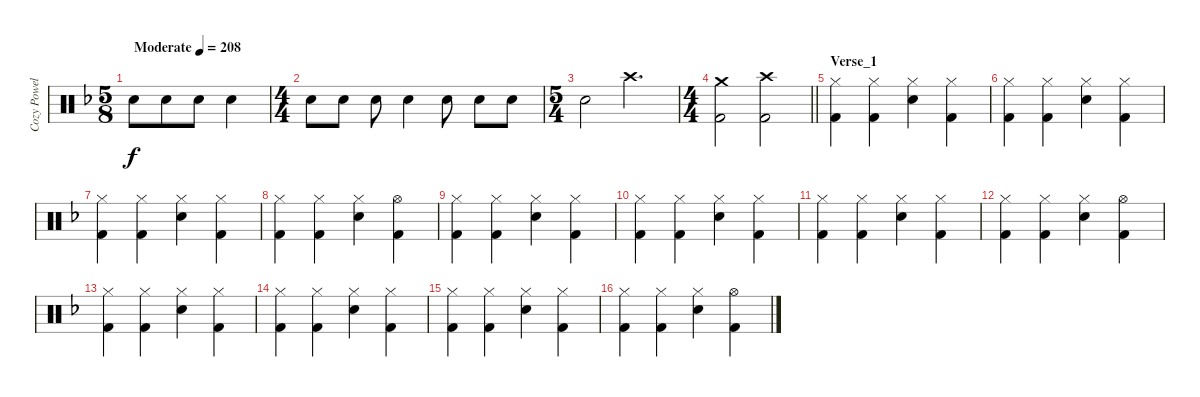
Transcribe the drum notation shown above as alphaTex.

\track ("Cozy Powell" "Cozy Powel") {instrument percussion}
\staff {score}
\articulation defaults
\ts (5 8)
\tempo (208 "Moderate")
\clef neutral
\ks f "Snare (hit) 2".8{dy f} "Snare (hit) 2".8 "Snare (hit) 2".8 "Snare (hit) 2".4
|
\ts (4 4)
"Snare (hit) 2".8 "Snare (hit) 2".8 "Snare (hit) 2".8 "Snare (hit) 2".4 "Snare (hit) 2".8 "Snare (hit) 2".8 "Snare (hit) 2".8 |
\ts (5 4)
"Snare (hit) 2".2 "Crash high (hit)".2{d} |
\ts (4 4)
\barLineRight lightlight
("Crash medium (hit)" "Kick (hit) 2").2 ("Crash high (hit)" "Kick (hit) 2").2 |
\section ("" "Verse_1")
("Hi-Hat (closed)" "Kick (hit) 2").4 ("Hi-Hat (closed)" "Kick (hit) 2").4 ("Hi-Hat (closed)" "Snare (hit) 2").4 ("Hi-Hat (closed)" "Kick (hit) 2").4 |
("Hi-Hat (closed)" "Kick (hit) 2").4 ("Hi-Hat (closed)" "Kick (hit) 2").4 ("Hi-Hat (closed)" "Snare (hit) 2").4 ("Hi-Hat (closed)" "Kick (hit) 2").4 |
("Hi-Hat (closed)" "Kick (hit) 2").4 ("Hi-Hat (closed)" "Kick (hit) 2").4 ("Hi-Hat (closed)" "Snare (hit) 2").4 ("Hi-Hat (closed)" "Kick (hit) 2").4 |
("Hi-Hat (closed)" "Kick (hit) 2").4 ("Hi-Hat (closed)" "Kick (hit) 2").4 ("Hi-Hat (closed)" "Snare (hit) 2").4 ("Hi-Hat (open)" "Kick (hit) 2").4 |
("Hi-Hat (closed)" "Kick (hit) 2").4 ("Hi-Hat (closed)" "Kick (hit) 2").4 ("Hi-Hat (closed)" "Snare (hit) 2").4 ("Hi-Hat (closed)" "Kick (hit) 2").4 |
("Hi-Hat (closed)" "Kick (hit) 2").4 ("Hi-Hat (closed)" "Kick (hit) 2").4 ("Hi-Hat (closed)" "Snare (hit) 2").4 ("Hi-Hat (closed)" "Kick (hit) 2").4 |
("Hi-Hat (closed)" "Kick (hit) 2").4 ("Hi-Hat (closed)" "Kick (hit) 2").4 ("Hi-Hat (closed)" "Snare (hit) 2").4 ("Hi-Hat (closed)" "Kick (hit) 2").4 |
("Hi-Hat (closed)" "Kick (hit) 2").4 ("Hi-Hat (closed)" "Kick (hit) 2").4 ("Hi-Hat (closed)" "Snare (hit) 2").4 ("Hi-Hat (open)" "Kick (hit) 2").4 |
("Hi-Hat (closed)" "Kick (hit) 2").4 ("Hi-Hat (closed)" "Kick (hit) 2").4 ("Hi-Hat (closed)" "Snare (hit) 2").4 ("Hi-Hat (closed)" "Kick (hit) 2").4 |
("Hi-Hat (closed)" "Kick (hit) 2").4 ("Hi-Hat (closed)" "Kick (hit) 2").4 ("Hi-Hat (closed)" "Snare (hit) 2").4 ("Hi-Hat (closed)" "Kick (hit) 2").4 |
("Hi-Hat (closed)" "Kick (hit) 2").4 ("Hi-Hat (closed)" "Kick (hit) 2").4 ("Hi-Hat (closed)" "Snare (hit) 2").4 ("Hi-Hat (closed)" "Kick (hit) 2").4 |
("Hi-Hat (closed)" "Kick (hit) 2").4 ("Hi-Hat (closed)" "Kick (hit) 2").4 ("Hi-Hat (closed)" "Snare (hit) 2").4 ("Hi-Hat (open)" "Kick (hit) 2").4
